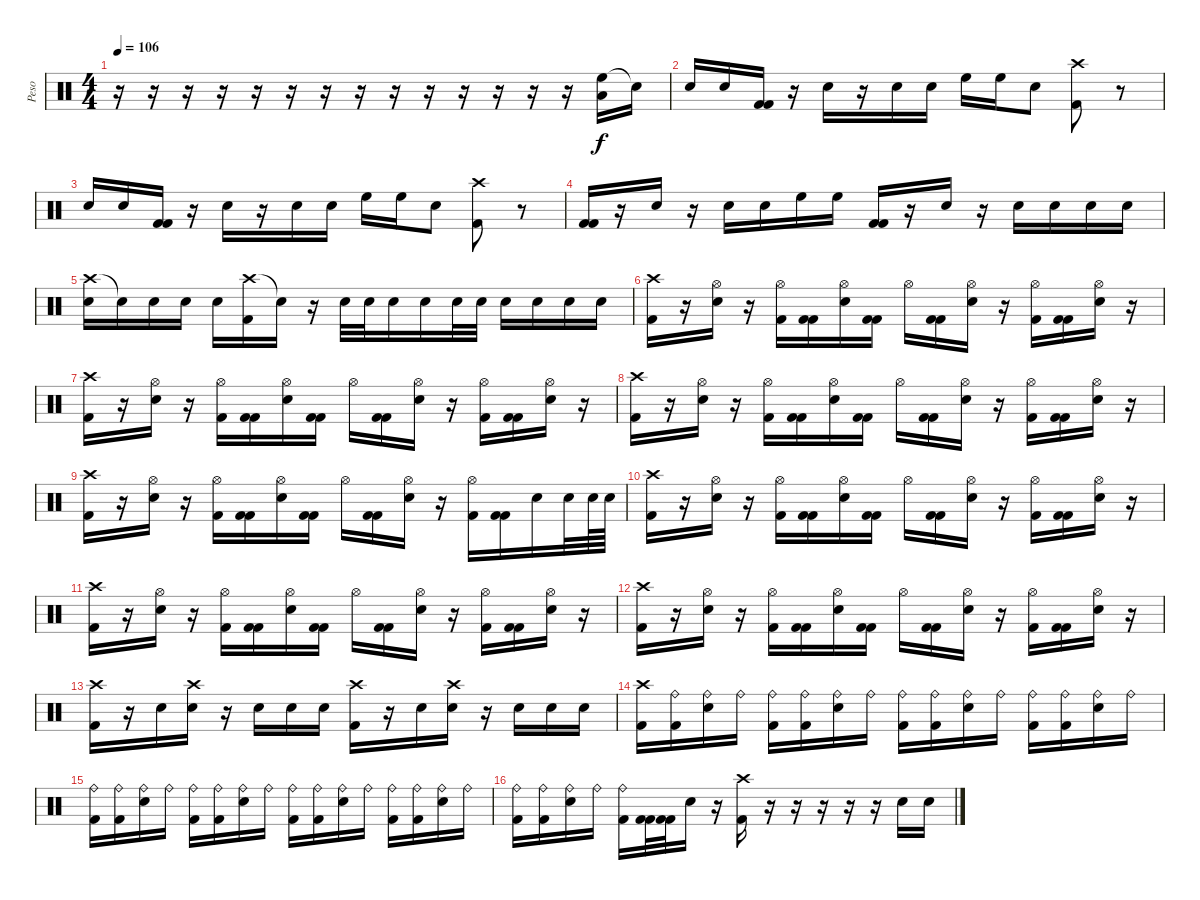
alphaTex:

\track ("Peso" "Peso") {instrument percussion}
\staff {score}
\articulation defaults
\ts (4 4)
\tempo 106
\clef neutral
\ks c
r.16{dy f} r.16 r.16 r.16 r.16 r.16 r.16 r.16 r.16 r.16 r.16 r.16 r.16 r.16 ("High Floor Tom (hit)" "Low Floor Tom (hit)").16 "Snare (hit)"{t}.16 |
"Snare (hit) 2".16 "Snare (hit) 2".16 ("Kick (hit) 2" "Kick (hit) 2").16 r.16 "Snare (hit) 2".16 r.16 "Snare (hit) 2".16 "Snare (hit) 2".16 "High Floor Tom (hit)".16 "High Floor Tom (hit)".16 "Snare (hit) 2".8 ("Crash high (hit)" "Kick (hit) 2").8 r.8 |
"Snare (hit) 2".16 "Snare (hit) 2".16 ("Kick (hit) 2" "Kick (hit) 2").16 r.16 "Snare (hit) 2".16 r.16 "Snare (hit) 2".16 "Snare (hit) 2".16 "High Floor Tom (hit)".16 "High Floor Tom (hit)".16 "Snare (hit) 2".8 ("Crash high (hit)" "Kick (hit) 2").8 r.8 |
("Kick (hit) 2" "Kick (hit) 2").16 r.16 "Snare (hit) 2".16 r.16 "Snare (hit) 2".16 "Snare (hit) 2".16 "High Floor Tom (hit)".16 "High Floor Tom (hit)".16 ("Kick (hit) 2" "Kick (hit) 2").16 r.16 "Snare (hit) 2".16 r.16 "Snare (hit) 2".16 "Snare (hit) 2".16 "Snare (hit) 2".16 "Snare (hit) 2".16 |
("Crash high (hit)" "Snare (hit) 2").16 "Snare (hit)"{t}.16 "Snare (hit) 2".16 "Snare (hit) 2".16 "Snare (hit) 2".16 ("Crash high (hit)" "Kick (hit) 2").16 "Snare (hit)"{t}.16 r.16 "Snare (hit) 2".32 "Snare (hit) 2".32 "Snare (hit) 2".16 "Snare (hit) 2".16 "Snare (hit) 2".32 "Snare (hit) 2".32 "Snare (hit) 2".16 "Snare (hit) 2".16 "Snare (hit) 2".16 "Snare (hit) 2".16 |
("Crash high (hit)" "Kick (hit) 2").16 r.16 ("Hi-Hat (open)" "Snare (hit) 2").16 r.16 ("Hi-Hat (open)" "Kick (hit) 2").16 ("Kick (hit) 2" "Kick (hit) 2").16 ("Hi-Hat (open)" "Snare (hit) 2").16 ("Kick (hit) 2" "Kick (hit) 2").16 "Hi-Hat (open)".16 ("Kick (hit) 2" "Kick (hit) 2").16 ("Hi-Hat (open)" "Snare (hit) 2").16 r.16 ("Hi-Hat (open)" "Kick (hit) 2").16 ("Kick (hit) 2" "Kick (hit) 2").16 ("Hi-Hat (open)" "Snare (hit) 2").16 r.16 |
("Crash high (hit)" "Kick (hit) 2").16 r.16 ("Hi-Hat (open)" "Snare (hit) 2").16 r.16 ("Hi-Hat (open)" "Kick (hit) 2").16 ("Kick (hit) 2" "Kick (hit) 2").16 ("Hi-Hat (open)" "Snare (hit) 2").16 ("Kick (hit) 2" "Kick (hit) 2").16 "Hi-Hat (open)".16 ("Kick (hit) 2" "Kick (hit) 2").16 ("Hi-Hat (open)" "Snare (hit) 2").16 r.16 ("Hi-Hat (open)" "Kick (hit) 2").16 ("Kick (hit) 2" "Kick (hit) 2").16 ("Hi-Hat (open)" "Snare (hit) 2").16 r.16 |
("Crash high (hit)" "Kick (hit) 2").16 r.16 ("Hi-Hat (open)" "Snare (hit) 2").16 r.16 ("Hi-Hat (open)" "Kick (hit) 2").16 ("Kick (hit) 2" "Kick (hit) 2").16 ("Hi-Hat (open)" "Snare (hit) 2").16 ("Kick (hit) 2" "Kick (hit) 2").16 "Hi-Hat (open)".16 ("Kick (hit) 2" "Kick (hit) 2").16 ("Hi-Hat (open)" "Snare (hit) 2").16 r.16 ("Hi-Hat (open)" "Kick (hit) 2").16 ("Kick (hit) 2" "Kick (hit) 2").16 ("Hi-Hat (open)" "Snare (hit) 2").16 r.16 |
("Crash high (hit)" "Kick (hit) 2").16 r.16 ("Hi-Hat (open)" "Snare (hit) 2").16 r.16 ("Hi-Hat (open)" "Kick (hit) 2").16 ("Kick (hit) 2" "Kick (hit) 2").16 ("Hi-Hat (open)" "Snare (hit) 2").16 ("Kick (hit) 2" "Kick (hit) 2").16 "Hi-Hat (open)".16 ("Kick (hit) 2" "Kick (hit) 2").16 ("Hi-Hat (open)" "Snare (hit) 2").16 r.16 ("Hi-Hat (open)" "Kick (hit) 2").16 ("Kick (hit) 2" "Kick (hit) 2").16 "Snare (hit) 2".16 "Snare (hit) 2".32 "Snare (hit) 2".64 "Snare (hit) 2".64 |
("Crash high (hit)" "Kick (hit) 2").16 r.16 ("Hi-Hat (open)" "Snare (hit) 2").16 r.16 ("Hi-Hat (open)" "Kick (hit) 2").16 ("Kick (hit) 2" "Kick (hit) 2").16 ("Hi-Hat (open)" "Snare (hit) 2").16 ("Kick (hit) 2" "Kick (hit) 2").16 "Hi-Hat (open)".16 ("Kick (hit) 2" "Kick (hit) 2").16 ("Hi-Hat (open)" "Snare (hit) 2").16 r.16 ("Hi-Hat (open)" "Kick (hit) 2").16 ("Kick (hit) 2" "Kick (hit) 2").16 ("Hi-Hat (open)" "Snare (hit) 2").16 r.16 |
("Crash high (hit)" "Kick (hit) 2").16 r.16 ("Hi-Hat (open)" "Snare (hit) 2").16 r.16 ("Hi-Hat (open)" "Kick (hit) 2").16 ("Kick (hit) 2" "Kick (hit) 2").16 ("Hi-Hat (open)" "Snare (hit) 2").16 ("Kick (hit) 2" "Kick (hit) 2").16 "Hi-Hat (open)".16 ("Kick (hit) 2" "Kick (hit) 2").16 ("Hi-Hat (open)" "Snare (hit) 2").16 r.16 ("Hi-Hat (open)" "Kick (hit) 2").16 ("Kick (hit) 2" "Kick (hit) 2").16 ("Hi-Hat (open)" "Snare (hit) 2").16 r.16 |
("Crash high (hit)" "Kick (hit) 2").16 r.16 ("Hi-Hat (open)" "Snare (hit) 2").16 r.16 ("Hi-Hat (open)" "Kick (hit) 2").16 ("Kick (hit) 2" "Kick (hit) 2").16 ("Hi-Hat (open)" "Snare (hit) 2").16 ("Kick (hit) 2" "Kick (hit) 2").16 "Hi-Hat (open)".16 ("Kick (hit) 2" "Kick (hit) 2").16 ("Hi-Hat (open)" "Snare (hit) 2").16 r.16 ("Hi-Hat (open)" "Kick (hit) 2").16 ("Kick (hit) 2" "Kick (hit) 2").16 ("Hi-Hat (open)" "Snare (hit) 2").16 r.16 |
("Crash high (hit)" "Kick (hit) 2").16 r.16 "Snare (hit) 2".16 ("Crash high (hit)" "Snare (hit) 2").16 r.16 "Snare (hit) 2".16 "Snare (hit) 2".16 "Snare (hit) 2".16 ("Crash high (hit)" "Kick (hit) 2").16 r.16 "Snare (hit) 2".16 ("Crash high (hit)" "Snare (hit) 2").16 r.16 "Snare (hit) 2".16 "Snare (hit) 2".16 "Snare (hit) 2".16 |
("Crash high (hit)" "Kick (hit) 2").16 ("Ride (bell)" "Kick (hit) 2").16 ("Ride (bell)" "Snare (hit) 2").16 "Ride (bell)".16 ("Ride (bell)" "Kick (hit) 2").16 ("Ride (bell)" "Kick (hit) 2").16 ("Ride (bell)" "Snare (hit) 2").16 "Ride (bell)".16 ("Ride (bell)" "Kick (hit) 2").16 ("Ride (bell)" "Kick (hit) 2").16 ("Ride (bell)" "Snare (hit) 2").16 "Ride (bell)".16 ("Ride (bell)" "Kick (hit) 2").16 ("Ride (bell)" "Kick (hit) 2").16 ("Ride (bell)" "Snare (hit) 2").16 "Ride (bell)".16 |
("Ride (bell)" "Kick (hit) 2").16 ("Ride (bell)" "Kick (hit) 2").16 ("Ride (bell)" "Snare (hit) 2").16 "Ride (bell)".16 ("Ride (bell)" "Kick (hit) 2").16 ("Ride (bell)" "Kick (hit) 2").16 ("Ride (bell)" "Snare (hit) 2").16 "Ride (bell)".16 ("Ride (bell)" "Kick (hit) 2").16 ("Ride (bell)" "Kick (hit) 2").16 ("Ride (bell)" "Snare (hit) 2").16 "Ride (bell)".16 ("Ride (bell)" "Kick (hit) 2").16 ("Ride (bell)" "Kick (hit) 2").16 ("Ride (bell)" "Snare (hit) 2").16 "Ride (bell)".16 |
("Ride (bell)" "Kick (hit) 2").16 ("Ride (bell)" "Kick (hit) 2").16 ("Ride (bell)" "Snare (hit) 2").16 "Ride (bell)".16 ("Ride (bell)" "Kick (hit) 2").16 ("Kick (hit) 2" "Kick (hit) 2").32 ("Kick (hit) 2" "Kick (hit) 2").32 "Snare (hit) 2".16 r.16 ("Crash high (hit)" "Kick (hit) 2").16 r.16 r.16 r.16 r.16 r.16 "Snare (hit) 2".16 "Snare (hit) 2".16
